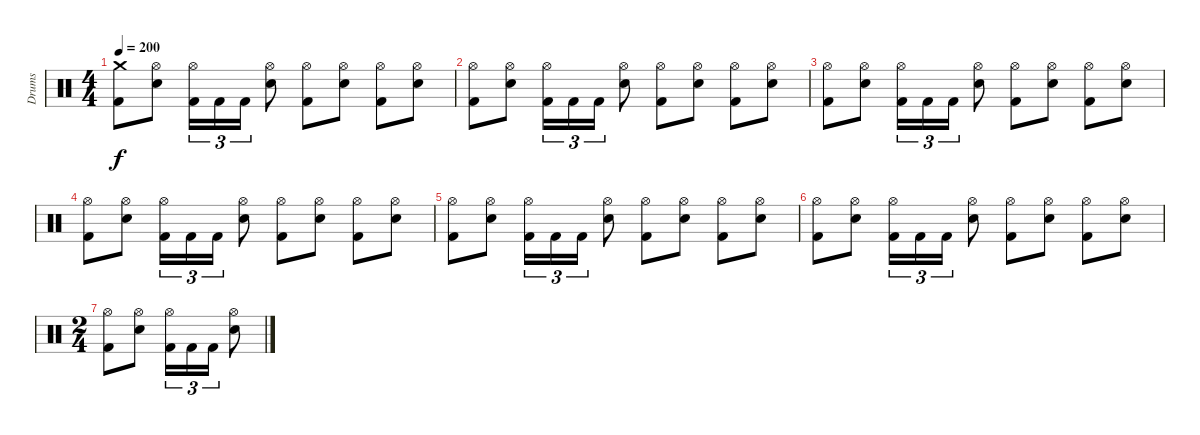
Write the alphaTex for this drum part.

\track ("Drums" "Drums") {instrument percussion}
\staff {score}
\articulation defaults
\ts (4 4)
\tempo 200
\clef neutral
\ks c
("Kick (hit) 2" "Crash medium (hit)").8{dy f volume 6} ("Electric Snare (hit)" "Hi-Hat (open)").8 ("Kick (hit) 2" "Hi-Hat (open)").16{tu (3 2)} "Kick (hit) 2".16{tu (3 2)} "Kick (hit) 2".16{tu (3 2)} ("Electric Snare (hit)" "Hi-Hat (open)").8 ("Kick (hit) 2" "Hi-Hat (open)").8 ("Electric Snare (hit)" "Hi-Hat (open)").8 ("Kick (hit) 2" "Hi-Hat (open)").8 ("Electric Snare (hit)" "Hi-Hat (open)").8 |
("Kick (hit) 2" "Hi-Hat (open)").8 ("Electric Snare (hit)" "Hi-Hat (open)").8 ("Kick (hit) 2" "Hi-Hat (open)").16{tu (3 2)} "Kick (hit) 2".16{tu (3 2)} "Kick (hit) 2".16{tu (3 2)} ("Electric Snare (hit)" "Hi-Hat (open)").8 ("Kick (hit) 2" "Hi-Hat (open)").8 ("Electric Snare (hit)" "Hi-Hat (open)").8 ("Kick (hit) 2" "Hi-Hat (open)").8 ("Electric Snare (hit)" "Hi-Hat (open)").8 |
("Kick (hit) 2" "Hi-Hat (open)").8{volume 4} ("Electric Snare (hit)" "Hi-Hat (open)").8 ("Kick (hit) 2" "Hi-Hat (open)").16{tu (3 2)} "Kick (hit) 2".16{tu (3 2)} "Kick (hit) 2".16{tu (3 2)} ("Electric Snare (hit)" "Hi-Hat (open)").8 ("Kick (hit) 2" "Hi-Hat (open)").8 ("Electric Snare (hit)" "Hi-Hat (open)").8 ("Kick (hit) 2" "Hi-Hat (open)").8 ("Electric Snare (hit)" "Hi-Hat (open)").8 |
("Kick (hit) 2" "Hi-Hat (open)").8 ("Electric Snare (hit)" "Hi-Hat (open)").8 ("Kick (hit) 2" "Hi-Hat (open)").16{tu (3 2)} "Kick (hit) 2".16{tu (3 2)} "Kick (hit) 2".16{tu (3 2)} ("Electric Snare (hit)" "Hi-Hat (open)").8 ("Kick (hit) 2" "Hi-Hat (open)").8 ("Electric Snare (hit)" "Hi-Hat (open)").8 ("Kick (hit) 2" "Hi-Hat (open)").8 ("Electric Snare (hit)" "Hi-Hat (open)").8 |
("Kick (hit) 2" "Hi-Hat (open)").8{volume 2} ("Electric Snare (hit)" "Hi-Hat (open)").8 ("Kick (hit) 2" "Hi-Hat (open)").16{tu (3 2)} "Kick (hit) 2".16{tu (3 2)} "Kick (hit) 2".16{tu (3 2)} ("Electric Snare (hit)" "Hi-Hat (open)").8 ("Kick (hit) 2" "Hi-Hat (open)").8 ("Electric Snare (hit)" "Hi-Hat (open)").8 ("Kick (hit) 2" "Hi-Hat (open)").8 ("Electric Snare (hit)" "Hi-Hat (open)").8 |
("Kick (hit) 2" "Hi-Hat (open)").8 ("Electric Snare (hit)" "Hi-Hat (open)").8 ("Kick (hit) 2" "Hi-Hat (open)").16{tu (3 2) volume 0} "Kick (hit) 2".16{tu (3 2)} "Kick (hit) 2".16{tu (3 2)} ("Electric Snare (hit)" "Hi-Hat (open)").8 ("Kick (hit) 2" "Hi-Hat (open)").8 ("Electric Snare (hit)" "Hi-Hat (open)").8 ("Kick (hit) 2" "Hi-Hat (open)").8 ("Electric Snare (hit)" "Hi-Hat (open)").8 |
\ts (2 4)
("Kick (hit) 2" "Hi-Hat (open)").8 ("Electric Snare (hit)" "Hi-Hat (open)").8 ("Kick (hit) 2" "Hi-Hat (open)").16{tu (3 2)} "Kick (hit) 2".16{tu (3 2)} "Kick (hit) 2".16{tu (3 2)} ("Electric Snare (hit)" "Hi-Hat (open)").8
